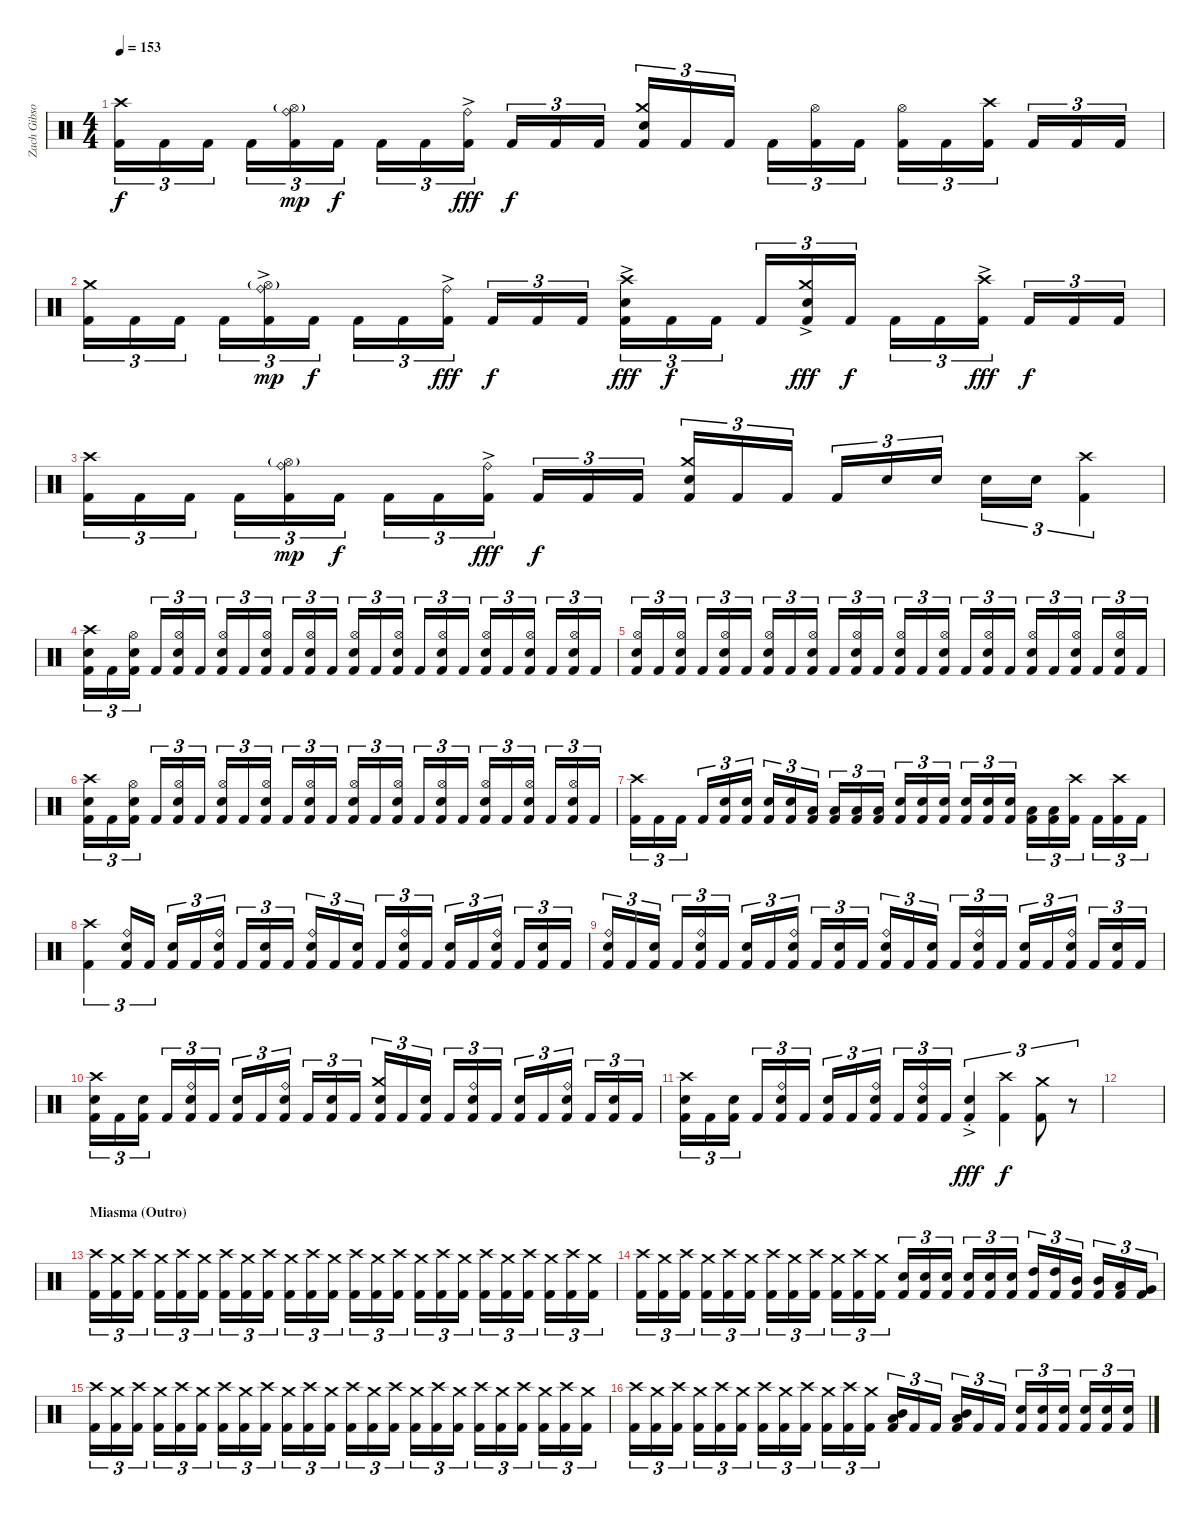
\track ("Zach Gibson (Drums)" "Zach Gibso") {instrument percussion}
\staff {score}
\articulation defaults
\ts (4 4)
\tempo 153
\clef neutral
\ks c
("Crash high (hit)" "Kick (hit) 2").16{tu (3 2) dy f} "Kick (hit) 2".16{tu (3 2)} "Kick (hit) 2".16{tu (3 2)} "Kick (hit) 2".16{tu (3 2)} ("Ride (bell)" "Hi-Hat (open)"{g} "Kick (hit) 2").16{tu (3 2) dy mp} "Kick (hit) 2".16{tu (3 2) dy f} "Kick (hit) 2".16{tu (3 2)} "Kick (hit) 2".16{tu (3 2)} ("Ride (bell)"{ac} "Kick (hit) 2").16{tu (3 2) dy fff} "Kick (hit) 2".16{tu (3 2) dy f} "Kick (hit) 2".16{tu (3 2)} "Kick (hit) 2".16{tu (3 2)} ("Crash medium (hit)" "Snare (hit) 2" "Kick (hit) 2").16{tu (3 2)} "Kick (hit) 2".16{tu (3 2)} "Kick (hit) 2".16{tu (3 2)} "Kick (hit) 2".16{tu (3 2)} ("Hi-Hat (open)" "Kick (hit) 2").16{tu (3 2)} "Kick (hit) 2".16{tu (3 2)} ("Hi-Hat (open)" "Kick (hit) 2").16{tu (3 2)} "Kick (hit) 2".16{tu (3 2)} ("Crash high (hit)" "Kick (hit) 2").16{tu (3 2)} "Kick (hit) 2".16{tu (3 2)} "Kick (hit) 2".16{tu (3 2)} "Kick (hit) 2".16{tu (3 2)} |
("Crash medium (hit)" "Kick (hit) 2").16{tu (3 2)} "Kick (hit) 2".16{tu (3 2)} "Kick (hit) 2".16{tu (3 2)} "Kick (hit) 2".16{tu (3 2)} ("Ride (bell)"{ac} "Hi-Hat (open)"{g} "Kick (hit) 2").16{tu (3 2) dy mp} "Kick (hit) 2".16{tu (3 2) dy f} "Kick (hit) 2".16{tu (3 2)} "Kick (hit) 2".16{tu (3 2)} ("Ride (bell)"{ac} "Kick (hit) 2").16{tu (3 2) dy fff} "Kick (hit) 2".16{tu (3 2) dy f} "Kick (hit) 2".16{tu (3 2)} "Kick (hit) 2".16{tu (3 2)} ("Crash high (hit)"{ac} "Snare (hit) 2"{ac} "Kick (hit) 2").16{tu (3 2) dy fff} "Kick (hit) 2".16{tu (3 2) dy f} "Kick (hit) 2".16{tu (3 2)} "Kick (hit) 2".16{tu (3 2)} ("Crash medium (hit)"{ac} "Snare (hit) 2"{ac} "Kick (hit) 2").16{tu (3 2) dy fff} "Kick (hit) 2".16{tu (3 2) dy f} "Kick (hit) 2".16{tu (3 2)} "Kick (hit) 2".16{tu (3 2)} ("Crash high (hit)"{ac} "Kick (hit) 2").16{tu (3 2) dy fff} "Kick (hit) 2".16{tu (3 2) dy f} "Kick (hit) 2".16{tu (3 2)} "Kick (hit) 2".16{tu (3 2)} |
("Crash high (hit)" "Kick (hit) 2").16{tu (3 2)} "Kick (hit) 2".16{tu (3 2)} "Kick (hit) 2".16{tu (3 2)} "Kick (hit) 2".16{tu (3 2)} ("Ride (bell)" "Hi-Hat (open)"{g} "Kick (hit) 2").16{tu (3 2) dy mp} "Kick (hit) 2".16{tu (3 2) dy f} "Kick (hit) 2".16{tu (3 2)} "Kick (hit) 2".16{tu (3 2)} ("Ride (bell)"{ac} "Kick (hit) 2").16{tu (3 2) dy fff} "Kick (hit) 2".16{tu (3 2) dy f} "Kick (hit) 2".16{tu (3 2)} "Kick (hit) 2".16{tu (3 2)} ("Crash medium (hit)" "Snare (hit) 2" "Kick (hit) 2").16{tu (3 2)} "Kick (hit) 2".16{tu (3 2)} "Kick (hit) 2".16{tu (3 2)} "Kick (hit) 2".16{tu (3 2)} "Snare (hit) 2".16{tu (3 2)} "Snare (hit) 2".16{tu (3 2)} "Snare (hit) 2".16{tu (3 2)} "Snare (hit) 2".16{tu (3 2)} ("Crash high (hit)" "Kick (hit) 2").4{tu (3 2)} |
("Crash high (hit)" "Snare (hit) 2" "Kick (hit) 2").16{tu (3 2)} "Kick (hit) 2".16{tu (3 2)} ("Hi-Hat (open)" "Snare (hit) 2" "Kick (hit) 2").16{tu (3 2)} "Kick (hit) 2".16{tu (3 2)} ("Hi-Hat (open)" "Snare (hit) 2" "Kick (hit) 2").16{tu (3 2)} "Kick (hit) 2".16{tu (3 2)} ("Hi-Hat (open)" "Snare (hit) 2" "Kick (hit) 2").16{tu (3 2)} "Kick (hit) 2".16{tu (3 2)} ("Hi-Hat (open)" "Snare (hit) 2" "Kick (hit) 2").16{tu (3 2)} "Kick (hit) 2".16{tu (3 2)} ("Hi-Hat (open)" "Snare (hit) 2" "Kick (hit) 2").16{tu (3 2)} "Kick (hit) 2".16{tu (3 2)} ("Hi-Hat (open)" "Snare (hit) 2" "Kick (hit) 2").16{tu (3 2)} "Kick (hit) 2".16{tu (3 2)} ("Hi-Hat (open)" "Snare (hit) 2" "Kick (hit) 2").16{tu (3 2)} "Kick (hit) 2".16{tu (3 2)} ("Hi-Hat (open)" "Snare (hit) 2" "Kick (hit) 2").16{tu (3 2)} "Kick (hit) 2".16{tu (3 2)} ("Hi-Hat (open)" "Snare (hit) 2" "Kick (hit) 2").16{tu (3 2)} "Kick (hit) 2".16{tu (3 2)} ("Hi-Hat (open)" "Snare (hit) 2" "Kick (hit) 2").16{tu (3 2)} "Kick (hit) 2".16{tu (3 2)} ("Hi-Hat (open)" "Snare (hit) 2" "Kick (hit) 2").16{tu (3 2)} "Kick (hit) 2".16{tu (3 2)} |
("Hi-Hat (open)" "Snare (hit) 2" "Kick (hit) 2").16{tu (3 2)} "Kick (hit) 2".16{tu (3 2)} ("Hi-Hat (open)" "Snare (hit) 2" "Kick (hit) 2").16{tu (3 2)} "Kick (hit) 2".16{tu (3 2)} ("Hi-Hat (open)" "Snare (hit) 2" "Kick (hit) 2").16{tu (3 2)} "Kick (hit) 2".16{tu (3 2)} ("Hi-Hat (open)" "Snare (hit) 2" "Kick (hit) 2").16{tu (3 2)} "Kick (hit) 2".16{tu (3 2)} ("Hi-Hat (open)" "Snare (hit) 2" "Kick (hit) 2").16{tu (3 2)} "Kick (hit) 2".16{tu (3 2)} ("Hi-Hat (open)" "Snare (hit) 2" "Kick (hit) 2").16{tu (3 2)} "Kick (hit) 2".16{tu (3 2)} ("Hi-Hat (open)" "Snare (hit) 2" "Kick (hit) 2").16{tu (3 2)} "Kick (hit) 2".16{tu (3 2)} ("Hi-Hat (open)" "Snare (hit) 2" "Kick (hit) 2").16{tu (3 2)} "Kick (hit) 2".16{tu (3 2)} ("Hi-Hat (open)" "Snare (hit) 2" "Kick (hit) 2").16{tu (3 2)} "Kick (hit) 2".16{tu (3 2)} ("Hi-Hat (open)" "Snare (hit) 2" "Kick (hit) 2").16{tu (3 2)} "Kick (hit) 2".16{tu (3 2)} ("Hi-Hat (open)" "Snare (hit) 2" "Kick (hit) 2").16{tu (3 2)} "Kick (hit) 2".16{tu (3 2)} ("Hi-Hat (open)" "Snare (hit) 2" "Kick (hit) 2").16{tu (3 2)} "Kick (hit) 2".16{tu (3 2)} |
("Crash high (hit)" "Snare (hit) 2" "Kick (hit) 2").16{tu (3 2)} "Kick (hit) 2".16{tu (3 2)} ("Hi-Hat (open)" "Snare (hit) 2" "Kick (hit) 2").16{tu (3 2)} "Kick (hit) 2".16{tu (3 2)} ("Hi-Hat (open)" "Snare (hit) 2" "Kick (hit) 2").16{tu (3 2)} "Kick (hit) 2".16{tu (3 2)} ("Hi-Hat (open)" "Snare (hit) 2" "Kick (hit) 2").16{tu (3 2)} "Kick (hit) 2".16{tu (3 2)} ("Hi-Hat (open)" "Snare (hit) 2" "Kick (hit) 2").16{tu (3 2)} "Kick (hit) 2".16{tu (3 2)} ("Hi-Hat (open)" "Snare (hit) 2" "Kick (hit) 2").16{tu (3 2)} "Kick (hit) 2".16{tu (3 2)} ("Hi-Hat (open)" "Snare (hit) 2" "Kick (hit) 2").16{tu (3 2)} "Kick (hit) 2".16{tu (3 2)} ("Hi-Hat (open)" "Snare (hit) 2" "Kick (hit) 2").16{tu (3 2)} "Kick (hit) 2".16{tu (3 2)} ("Hi-Hat (open)" "Snare (hit) 2" "Kick (hit) 2").16{tu (3 2)} "Kick (hit) 2".16{tu (3 2)} ("Hi-Hat (open)" "Snare (hit) 2" "Kick (hit) 2").16{tu (3 2)} "Kick (hit) 2".16{tu (3 2)} ("Hi-Hat (open)" "Snare (hit) 2" "Kick (hit) 2").16{tu (3 2)} "Kick (hit) 2".16{tu (3 2)} ("Hi-Hat (open)" "Snare (hit) 2" "Kick (hit) 2").16{tu (3 2)} "Kick (hit) 2".16{tu (3 2)} |
("Crash high (hit)" "Kick (hit) 2").16{tu (3 2)} "Kick (hit) 2".16{tu (3 2)} "Kick (hit) 2".16{tu (3 2)} "Kick (hit) 2".16{tu (3 2)} ("Snare (hit) 2" "Kick (hit) 2").16{tu (3 2)} ("Snare (hit) 2" "Kick (hit) 2").16{tu (3 2)} ("Snare (hit) 2" "Kick (hit) 2").16{tu (3 2)} ("Snare (hit) 2" "Kick (hit) 2").16{tu (3 2)} ("Low Tom (hit)" "Kick (hit) 2").16{tu (3 2)} ("Low Tom (hit)" "Kick (hit) 2").16{tu (3 2)} ("Low Tom (hit)" "Kick (hit) 2").16{tu (3 2)} ("Low Tom (hit)" "Kick (hit) 2").16{tu (3 2)} ("Snare (hit) 2" "Kick (hit) 2").16{tu (3 2)} ("Snare (hit) 2" "Kick (hit) 2").16{tu (3 2)} ("Snare (hit) 2" "Kick (hit) 2").16{tu (3 2)} ("Snare (hit) 2" "Kick (hit) 2").16{tu (3 2)} ("Snare (hit) 2" "Kick (hit) 2").16{tu (3 2)} ("Snare (hit) 2" "Kick (hit) 2").16{tu (3 2)} ("Low Tom (hit)" "Kick (hit) 2").16{tu (3 2)} ("Low Tom (hit)" "Kick (hit) 2").16{tu (3 2)} ("Crash high (hit)" "Kick (hit) 2").16{tu (3 2)} "Kick (hit) 2".16{tu (3 2)} ("Crash high (hit)" "Kick (hit) 2").16{tu (3 2)} "Kick (hit) 2".16{tu (3 2)} |
("Crash high (hit)" "Kick (hit) 2").4{tu (3 2)} ("Ride (bell)" "Snare (hit) 2" "Kick (hit) 2").16{tu (3 2)} "Kick (hit) 2".16{tu (3 2)} ("Snare (hit) 2" "Kick (hit) 2").16{tu (3 2)} "Kick (hit) 2".16{tu (3 2)} ("Ride (bell)" "Snare (hit) 2" "Kick (hit) 2").16{tu (3 2)} "Kick (hit) 2".16{tu (3 2)} ("Snare (hit) 2" "Kick (hit) 2").16{tu (3 2)} "Kick (hit) 2".16{tu (3 2)} ("Ride (bell)" "Snare (hit) 2" "Kick (hit) 2").16{tu (3 2)} "Kick (hit) 2".16{tu (3 2)} ("Snare (hit) 2" "Kick (hit) 2").16{tu (3 2)} "Kick (hit) 2".16{tu (3 2)} ("Ride (bell)" "Snare (hit) 2" "Kick (hit) 2").16{tu (3 2)} "Kick (hit) 2".16{tu (3 2)} ("Snare (hit) 2" "Kick (hit) 2").16{tu (3 2)} "Kick (hit) 2".16{tu (3 2)} ("Ride (bell)" "Snare (hit) 2" "Kick (hit) 2").16{tu (3 2)} "Kick (hit) 2".16{tu (3 2)} ("Snare (hit) 2" "Kick (hit) 2").16{tu (3 2)} "Kick (hit) 2".16{tu (3 2)} |
("Ride (bell)" "Snare (hit) 2" "Kick (hit) 2").16{tu (3 2)} "Kick (hit) 2".16{tu (3 2)} ("Snare (hit) 2" "Kick (hit) 2").16{tu (3 2)} "Kick (hit) 2".16{tu (3 2)} ("Ride (bell)" "Snare (hit) 2" "Kick (hit) 2").16{tu (3 2)} "Kick (hit) 2".16{tu (3 2)} ("Snare (hit) 2" "Kick (hit) 2").16{tu (3 2)} "Kick (hit) 2".16{tu (3 2)} ("Ride (bell)" "Snare (hit) 2" "Kick (hit) 2").16{tu (3 2)} "Kick (hit) 2".16{tu (3 2)} ("Snare (hit) 2" "Kick (hit) 2").16{tu (3 2)} "Kick (hit) 2".16{tu (3 2)} ("Ride (bell)" "Snare (hit) 2" "Kick (hit) 2").16{tu (3 2)} "Kick (hit) 2".16{tu (3 2)} ("Snare (hit) 2" "Kick (hit) 2").16{tu (3 2)} "Kick (hit) 2".16{tu (3 2)} ("Ride (bell)" "Snare (hit) 2" "Kick (hit) 2").16{tu (3 2)} "Kick (hit) 2".16{tu (3 2)} ("Snare (hit) 2" "Kick (hit) 2").16{tu (3 2)} "Kick (hit) 2".16{tu (3 2)} ("Ride (bell)" "Snare (hit) 2" "Kick (hit) 2").16{tu (3 2)} "Kick (hit) 2".16{tu (3 2)} ("Snare (hit) 2" "Kick (hit) 2").16{tu (3 2)} "Kick (hit) 2".16{tu (3 2)} |
("Crash high (hit)" "Snare (hit) 2" "Kick (hit) 2").16{tu (3 2)} "Kick (hit) 2".16{tu (3 2)} ("Snare (hit) 2" "Kick (hit) 2").16{tu (3 2)} "Kick (hit) 2".16{tu (3 2)} ("Ride (bell)" "Snare (hit) 2" "Kick (hit) 2").16{tu (3 2)} "Kick (hit) 2".16{tu (3 2)} ("Snare (hit) 2" "Kick (hit) 2").16{tu (3 2)} "Kick (hit) 2".16{tu (3 2)} ("Ride (bell)" "Snare (hit) 2" "Kick (hit) 2").16{tu (3 2)} "Kick (hit) 2".16{tu (3 2)} ("Snare (hit) 2" "Kick (hit) 2").16{tu (3 2)} "Kick (hit) 2".16{tu (3 2)} ("Crash medium (hit)" "Snare (hit) 2" "Kick (hit) 2").16{tu (3 2)} "Kick (hit) 2".16{tu (3 2)} ("Snare (hit) 2" "Kick (hit) 2").16{tu (3 2)} "Kick (hit) 2".16{tu (3 2)} ("Ride (bell)" "Snare (hit) 2" "Kick (hit) 2").16{tu (3 2)} "Kick (hit) 2".16{tu (3 2)} ("Snare (hit) 2" "Kick (hit) 2").16{tu (3 2)} "Kick (hit) 2".16{tu (3 2)} ("Ride (bell)" "Snare (hit) 2" "Kick (hit) 2").16{tu (3 2)} "Kick (hit) 2".16{tu (3 2)} ("Snare (hit) 2" "Kick (hit) 2").16{tu (3 2)} "Kick (hit) 2".16{tu (3 2)} |
("Crash high (hit)" "Snare (hit) 2" "Kick (hit) 2").16{tu (3 2)} "Kick (hit) 2".16{tu (3 2)} ("Snare (hit) 2" "Kick (hit) 2").16{tu (3 2)} "Kick (hit) 2".16{tu (3 2)} ("Ride (bell)" "Snare (hit) 2" "Kick (hit) 2").16{tu (3 2)} "Kick (hit) 2".16{tu (3 2)} ("Snare (hit) 2" "Kick (hit) 2").16{tu (3 2)} "Kick (hit) 2".16{tu (3 2)} ("Ride (bell)" "Snare (hit) 2" "Kick (hit) 2").16{tu (3 2)} "Kick (hit) 2".16{tu (3 2)} ("Ride (bell)" "Snare (hit) 2" "Kick (hit) 2").16{tu (3 2)} "Kick (hit) 2".16{tu (3 2)} ("Snare (hit) 2"{ac st} "Kick (hit) 2").4{tu (3 2) dy fff} ("Crash high (hit)" "Kick (hit) 2").4{tu (3 2) dy f} ("Crash medium (hit)" "Kick (hit) 2").8{tu (3 2)} r.8{tu (3 2) volume 0} |
|
\section ("" "Miasma (Outro)")
("Crash high (hit)" "Kick (hit) 2").16{tu (3 2) volume 16} ("Crash medium (hit)" "Kick (hit) 2").16{tu (3 2)} ("Crash high (hit)" "Kick (hit) 2").16{tu (3 2)} ("Crash medium (hit)" "Kick (hit) 2").16{tu (3 2)} ("Crash high (hit)" "Kick (hit) 2").16{tu (3 2)} ("Crash medium (hit)" "Kick (hit) 2").16{tu (3 2)} ("Crash high (hit)" "Kick (hit) 2").16{tu (3 2)} ("Crash medium (hit)" "Kick (hit) 2").16{tu (3 2)} ("Crash high (hit)" "Kick (hit) 2").16{tu (3 2)} ("Crash medium (hit)" "Kick (hit) 2").16{tu (3 2)} ("Crash high (hit)" "Kick (hit) 2").16{tu (3 2)} ("Crash medium (hit)" "Kick (hit) 2").16{tu (3 2)} ("Crash high (hit)" "Kick (hit) 2").16{tu (3 2)} ("Crash medium (hit)" "Kick (hit) 2").16{tu (3 2)} ("Crash high (hit)" "Kick (hit) 2").16{tu (3 2)} ("Crash medium (hit)" "Kick (hit) 2").16{tu (3 2)} ("Crash high (hit)" "Kick (hit) 2").16{tu (3 2)} ("Crash medium (hit)" "Kick (hit) 2").16{tu (3 2)} ("Crash high (hit)" "Kick (hit) 2").16{tu (3 2)} ("Crash medium (hit)" "Kick (hit) 2").16{tu (3 2)} ("Crash high (hit)" "Kick (hit) 2").16{tu (3 2)} ("Crash medium (hit)" "Kick (hit) 2").16{tu (3 2)} ("Crash high (hit)" "Kick (hit) 2").16{tu (3 2)} ("Crash medium (hit)" "Kick (hit) 2").16{tu (3 2)} |
("Crash high (hit)" "Kick (hit) 2").16{tu (3 2)} ("Crash medium (hit)" "Kick (hit) 2").16{tu (3 2)} ("Crash high (hit)" "Kick (hit) 2").16{tu (3 2)} ("Crash medium (hit)" "Kick (hit) 2").16{tu (3 2)} ("Crash high (hit)" "Kick (hit) 2").16{tu (3 2)} ("Crash medium (hit)" "Kick (hit) 2").16{tu (3 2)} ("Crash high (hit)" "Kick (hit) 2").16{tu (3 2)} ("Crash medium (hit)" "Kick (hit) 2").16{tu (3 2)} ("Crash high (hit)" "Kick (hit) 2").16{tu (3 2)} ("Crash medium (hit)" "Kick (hit) 2").16{tu (3 2)} ("Crash high (hit)" "Kick (hit) 2").16{tu (3 2)} ("Crash medium (hit)" "Kick (hit) 2").16{tu (3 2)} ("Snare (hit) 2" "Kick (hit) 2").16{tu (3 2)} ("Snare (hit) 2" "Kick (hit) 2").16{tu (3 2)} ("Snare (hit) 2" "Kick (hit) 2").16{tu (3 2)} ("Snare (hit) 2" "Kick (hit) 2").16{tu (3 2)} ("Snare (hit) 2" "Kick (hit) 2").16{tu (3 2)} ("Snare (hit) 2" "Kick (hit) 2").16{tu (3 2)} ("High Tom (hit)" "Kick (hit) 2").16{tu (3 2)} ("High Tom (hit)" "Kick (hit) 2").16{tu (3 2)} ("Mid Tom (hit)" "Kick (hit) 2").16{tu (3 2)} ("Mid Tom (hit)" "Kick (hit) 2").16{tu (3 2)} ("Low Tom (hit)" "Kick (hit) 2").16{tu (3 2)} ("Very Low Tom (hit)" "Kick (hit) 2").16{tu (3 2)} |
("Crash high (hit)" "Kick (hit) 2").16{tu (3 2)} ("Crash medium (hit)" "Kick (hit) 2").16{tu (3 2)} ("Crash high (hit)" "Kick (hit) 2").16{tu (3 2)} ("Crash medium (hit)" "Kick (hit) 2").16{tu (3 2)} ("Crash high (hit)" "Kick (hit) 2").16{tu (3 2)} ("Crash medium (hit)" "Kick (hit) 2").16{tu (3 2)} ("Crash high (hit)" "Kick (hit) 2").16{tu (3 2)} ("Crash medium (hit)" "Kick (hit) 2").16{tu (3 2)} ("Crash high (hit)" "Kick (hit) 2").16{tu (3 2)} ("Crash medium (hit)" "Kick (hit) 2").16{tu (3 2)} ("Crash high (hit)" "Kick (hit) 2").16{tu (3 2)} ("Crash medium (hit)" "Kick (hit) 2").16{tu (3 2)} ("Crash high (hit)" "Kick (hit) 2").16{tu (3 2)} ("Crash medium (hit)" "Kick (hit) 2").16{tu (3 2)} ("Crash high (hit)" "Kick (hit) 2").16{tu (3 2)} ("Crash medium (hit)" "Kick (hit) 2").16{tu (3 2)} ("Crash high (hit)" "Kick (hit) 2").16{tu (3 2)} ("Crash medium (hit)" "Kick (hit) 2").16{tu (3 2)} ("Crash high (hit)" "Kick (hit) 2").16{tu (3 2)} ("Crash medium (hit)" "Kick (hit) 2").16{tu (3 2)} ("Crash high (hit)" "Kick (hit) 2").16{tu (3 2)} ("Crash medium (hit)" "Kick (hit) 2").16{tu (3 2)} ("Crash high (hit)" "Kick (hit) 2").16{tu (3 2)} ("Crash medium (hit)" "Kick (hit) 2").16{tu (3 2)} |
("Crash high (hit)" "Kick (hit) 2").16{tu (3 2)} ("Crash medium (hit)" "Kick (hit) 2").16{tu (3 2)} ("Crash high (hit)" "Kick (hit) 2").16{tu (3 2)} ("Crash medium (hit)" "Kick (hit) 2").16{tu (3 2)} ("Crash high (hit)" "Kick (hit) 2").16{tu (3 2)} ("Crash medium (hit)" "Kick (hit) 2").16{tu (3 2)} ("Crash high (hit)" "Kick (hit) 2").16{tu (3 2)} ("Crash medium (hit)" "Kick (hit) 2").16{tu (3 2)} ("Crash high (hit)" "Kick (hit) 2").16{tu (3 2)} ("Crash medium (hit)" "Kick (hit) 2").16{tu (3 2)} ("Crash high (hit)" "Kick (hit) 2").16{tu (3 2)} ("Crash medium (hit)" "Kick (hit) 2").16{tu (3 2)} ("Mid Tom (hit)" "Low Tom (hit)" "Kick (hit) 2").16{tu (3 2)} "Kick (hit) 2".16{tu (3 2)} "Kick (hit) 2".16{tu (3 2)} ("Mid Tom (hit)" "Low Tom (hit)" "Kick (hit) 2").16{tu (3 2)} "Kick (hit) 2".16{tu (3 2)} "Kick (hit) 2".16{tu (3 2)} ("Snare (hit) 2" "Kick (hit) 2").16{tu (3 2)} ("Snare (hit) 2" "Kick (hit) 2").16{tu (3 2)} ("Snare (hit) 2" "Kick (hit) 2").16{tu (3 2)} ("Snare (hit) 2" "Kick (hit) 2").16{tu (3 2)} ("Snare (hit) 2" "Kick (hit) 2").16{tu (3 2)} ("Snare (hit) 2" "Kick (hit) 2").16{tu (3 2)}
